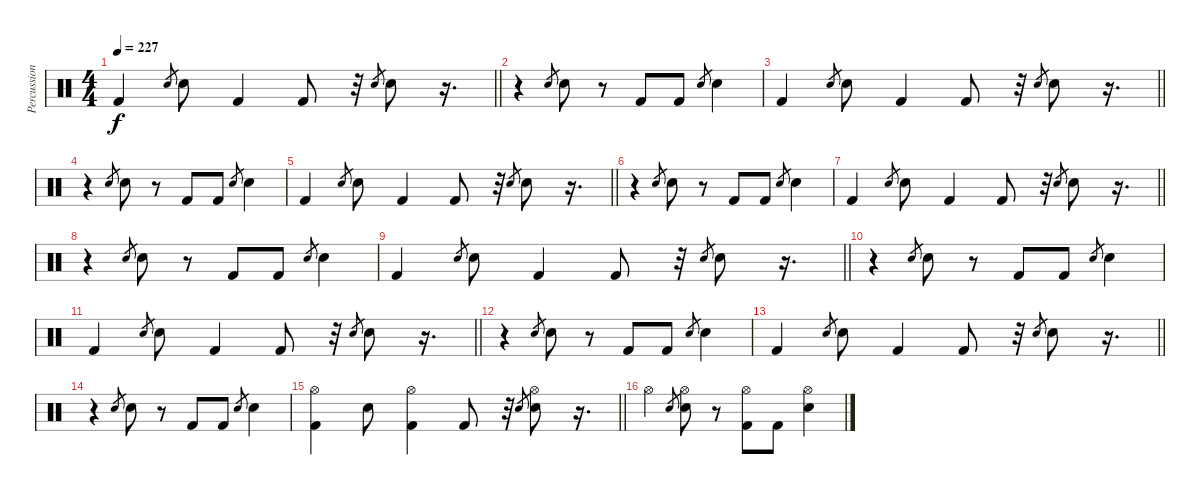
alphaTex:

\track ("Percussion" "Percussion") {instrument percussion}
\staff {score}
\articulation defaults
\ts (4 4)
\tempo 227
\clef neutral
\barLineRight lightlight
\ks c "Kick (hit) 2".4{dy f} "Snare (hit) 2".8{gr} "Snare (hit) 2".8 "Kick (hit) 2".4 "Kick (hit) 2".8
r.32 "Snare (hit) 2".8{gr} "Snare (hit) 2".8 r.16{d} |
r.4 "Snare (hit) 2".8{gr} "Snare (hit) 2".8 r.8 "Kick (hit) 2".8 "Kick (hit) 2".8 "Snare (hit) 2".8{gr} "Snare (hit) 2".4 |
\barLineRight lightlight "Kick (hit) 2".4 "Snare (hit) 2".8{gr} "Snare (hit) 2".8 "Kick (hit) 2".4 "Kick (hit) 2".8
r.32 "Snare (hit) 2".8{gr} "Snare (hit) 2".8 r.16{d} |
r.4 "Snare (hit) 2".8{gr} "Snare (hit) 2".8 r.8 "Kick (hit) 2".8 "Kick (hit) 2".8 "Snare (hit) 2".8{gr} "Snare (hit) 2".4 |
\barLineRight lightlight "Kick (hit) 2".4 "Snare (hit) 2".8{gr} "Snare (hit) 2".8 "Kick (hit) 2".4 "Kick (hit) 2".8
r.32 "Snare (hit) 2".8{gr} "Snare (hit) 2".8 r.16{d} |
r.4 "Snare (hit) 2".8{gr} "Snare (hit) 2".8 r.8 "Kick (hit) 2".8 "Kick (hit) 2".8 "Snare (hit) 2".8{gr} "Snare (hit) 2".4 |
\barLineRight lightlight "Kick (hit) 2".4 "Snare (hit) 2".8{gr} "Snare (hit) 2".8 "Kick (hit) 2".4 "Kick (hit) 2".8
r.32 "Snare (hit) 2".8{gr} "Snare (hit) 2".8 r.16{d} |
r.4 "Snare (hit) 2".8{gr} "Snare (hit) 2".8 r.8 "Kick (hit) 2".8 "Kick (hit) 2".8 "Snare (hit) 2".8{gr} "Snare (hit) 2".4 |
\barLineRight lightlight "Kick (hit) 2".4 "Snare (hit) 2".8{gr} "Snare (hit) 2".8 "Kick (hit) 2".4 "Kick (hit) 2".8
r.32 "Snare (hit) 2".8{gr} "Snare (hit) 2".8 r.16{d} |
r.4 "Snare (hit) 2".8{gr} "Snare (hit) 2".8 r.8 "Kick (hit) 2".8 "Kick (hit) 2".8 "Snare (hit) 2".8{gr} "Snare (hit) 2".4 |
\barLineRight lightlight "Kick (hit) 2".4 "Snare (hit) 2".8{gr} "Snare (hit) 2".8 "Kick (hit) 2".4 "Kick (hit) 2".8
r.32 "Snare (hit) 2".8{gr} "Snare (hit) 2".8 r.16{d} |
r.4 "Snare (hit) 2".8{gr} "Snare (hit) 2".8 r.8 "Kick (hit) 2".8 "Kick (hit) 2".8 "Snare (hit) 2".8{gr} "Snare (hit) 2".4 |
\barLineRight lightlight "Kick (hit) 2".4 "Snare (hit) 2".8{gr} "Snare (hit) 2".8 "Kick (hit) 2".4 "Kick (hit) 2".8
r.32 "Snare (hit) 2".8{gr} "Snare (hit) 2".8 r.16{d} |
r.4 "Snare (hit) 2".8{gr} "Snare (hit) 2".8 r.8 "Kick (hit) 2".8 "Kick (hit) 2".8 "Snare (hit) 2".8{gr} "Snare (hit) 2".4 |
\barLineRight lightlight
("Hi-Hat (open)" "Kick (hit) 2").4 "Snare (hit) 2".8 ("Hi-Hat (open)" "Kick (hit) 2").4 "Kick (hit) 2".8 r.32 "Snare (hit) 2".8{gr} ("Hi-Hat (open)" "Snare (hit) 2").8 r.16{d} |
"Hi-Hat (open)".4 "Snare (hit) 2".8{gr} ("Hi-Hat (open)" "Snare (hit) 2").8 r.8 ("Hi-Hat (open)" "Kick (hit) 2").8 "Kick (hit) 2".8 ("Hi-Hat (open)" "Snare (hit) 2").4
